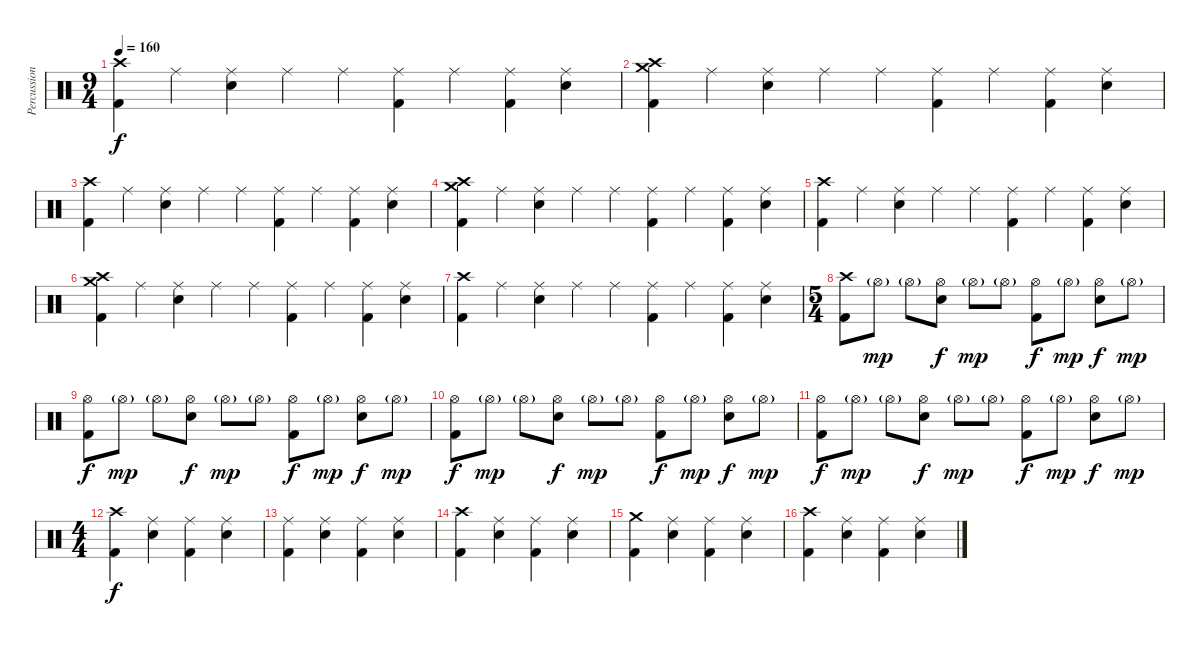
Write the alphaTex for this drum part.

\track ("Percussion" "Percussion") {instrument percussion}
\staff {score}
\articulation defaults
\ts (9 4)
\tempo 160
\clef neutral
\ks c
("Crash high (hit)" "Kick (hit) 2").4{dy f} "Ride (middle)".4 ("Ride (middle)" "Snare (hit) 2").4 "Ride (middle)".4 "Ride (middle)".4 ("Ride (middle)" "Kick (hit) 2").4 "Ride (middle)".4 ("Ride (middle)" "Kick (hit) 2").4 ("Ride (middle)" "Snare (hit) 2").4 |
("Crash medium (hit)" "Crash high (hit)" "Kick (hit) 2").4 "Ride (middle)".4 ("Ride (middle)" "Snare (hit) 2").4 "Ride (middle)".4 "Ride (middle)".4 ("Ride (middle)" "Kick (hit) 2").4 "Ride (middle)".4 ("Ride (middle)" "Kick (hit) 2").4 ("Ride (middle)" "Snare (hit) 2").4 |
("Crash high (hit)" "Kick (hit) 2").4 "Ride (middle)".4 ("Ride (middle)" "Snare (hit) 2").4 "Ride (middle)".4 "Ride (middle)".4 ("Ride (middle)" "Kick (hit) 2").4 "Ride (middle)".4 ("Ride (middle)" "Kick (hit) 2").4 ("Ride (middle)" "Snare (hit) 2").4 |
("Crash medium (hit)" "Crash high (hit)" "Kick (hit) 2").4 "Ride (middle)".4 ("Ride (middle)" "Snare (hit) 2").4 "Ride (middle)".4 "Ride (middle)".4 ("Ride (middle)" "Kick (hit) 2").4 "Ride (middle)".4 ("Ride (middle)" "Kick (hit) 2").4 ("Ride (middle)" "Snare (hit) 2").4 |
("Crash high (hit)" "Kick (hit) 2").4 "Ride (middle)".4 ("Ride (middle)" "Snare (hit) 2").4 "Ride (middle)".4 "Ride (middle)".4 ("Ride (middle)" "Kick (hit) 2").4 "Ride (middle)".4 ("Ride (middle)" "Kick (hit) 2").4 ("Ride (middle)" "Snare (hit) 2").4 |
("Crash medium (hit)" "Crash high (hit)" "Kick (hit) 2").4 "Ride (middle)".4 ("Ride (middle)" "Snare (hit) 2").4 "Ride (middle)".4 "Ride (middle)".4 ("Ride (middle)" "Kick (hit) 2").4 "Ride (middle)".4 ("Ride (middle)" "Kick (hit) 2").4 ("Ride (middle)" "Snare (hit) 2").4 |
("Crash high (hit)" "Kick (hit) 2").4 "Ride (middle)".4 ("Ride (middle)" "Snare (hit) 2").4 "Ride (middle)".4 "Ride (middle)".4 ("Ride (middle)" "Kick (hit) 2").4 "Ride (middle)".4 ("Ride (middle)" "Kick (hit) 2").4 ("Ride (middle)" "Snare (hit) 2").4 |
\ts (5 4)
("Crash high (hit)" "Kick (hit) 2").8 "Hi-Hat (open)"{g}.8{dy mp} "Hi-Hat (open)"{g}.8 ("Hi-Hat (open)" "Snare (hit) 2").8{dy f} "Hi-Hat (open)"{g}.8{dy mp} "Hi-Hat (open)"{g}.8 ("Hi-Hat (open)" "Kick (hit) 2").8{dy f} "Hi-Hat (open)"{g}.8{dy mp} ("Hi-Hat (open)" "Snare (hit) 2").8{dy f} "Hi-Hat (open)"{g}.8{dy mp} |
("Hi-Hat (open)" "Kick (hit) 2").8{dy f} "Hi-Hat (open)"{g}.8{dy mp} "Hi-Hat (open)"{g}.8 ("Hi-Hat (open)" "Snare (hit) 2").8{dy f} "Hi-Hat (open)"{g}.8{dy mp} "Hi-Hat (open)"{g}.8 ("Hi-Hat (open)" "Kick (hit) 2").8{dy f} "Hi-Hat (open)"{g}.8{dy mp} ("Hi-Hat (open)" "Snare (hit) 2").8{dy f} "Hi-Hat (open)"{g}.8{dy mp} |
("Hi-Hat (open)" "Kick (hit) 2").8{dy f} "Hi-Hat (open)"{g}.8{dy mp} "Hi-Hat (open)"{g}.8 ("Hi-Hat (open)" "Snare (hit) 2").8{dy f} "Hi-Hat (open)"{g}.8{dy mp} "Hi-Hat (open)"{g}.8 ("Hi-Hat (open)" "Kick (hit) 2").8{dy f} "Hi-Hat (open)"{g}.8{dy mp} ("Hi-Hat (open)" "Snare (hit) 2").8{dy f} "Hi-Hat (open)"{g}.8{dy mp} |
("Hi-Hat (open)" "Kick (hit) 2").8{dy f} "Hi-Hat (open)"{g}.8{dy mp} "Hi-Hat (open)"{g}.8 ("Hi-Hat (open)" "Snare (hit) 2").8{dy f} "Hi-Hat (open)"{g}.8{dy mp} "Hi-Hat (open)"{g}.8 ("Hi-Hat (open)" "Kick (hit) 2").8{dy f} "Hi-Hat (open)"{g}.8{dy mp} ("Hi-Hat (open)" "Snare (hit) 2").8{dy f} "Hi-Hat (open)"{g}.8{dy mp} |
\ts (4 4)
("Crash high (hit)" "Kick (hit) 2").4{dy f} ("Ride (middle)" "Snare (hit) 2").4 ("Ride (middle)" "Kick (hit) 2").4 ("Ride (middle)" "Snare (hit) 2").4 |
("Ride (middle)" "Kick (hit) 2").4 ("Ride (middle)" "Snare (hit) 2").4 ("Ride (middle)" "Kick (hit) 2").4 ("Ride (middle)" "Snare (hit) 2").4 |
("Crash high (hit)" "Kick (hit) 2").4 ("Ride (middle)" "Snare (hit) 2").4 ("Ride (middle)" "Kick (hit) 2").4 ("Ride (middle)" "Snare (hit) 2").4 |
("Crash medium (hit)" "Kick (hit) 2").4 ("Ride (middle)" "Snare (hit) 2").4 ("Ride (middle)" "Kick (hit) 2").4 ("Ride (middle)" "Snare (hit) 2").4 |
("Crash high (hit)" "Kick (hit) 2").4 ("Ride (middle)" "Snare (hit) 2").4 ("Ride (middle)" "Kick (hit) 2").4 ("Ride (middle)" "Snare (hit) 2").4
